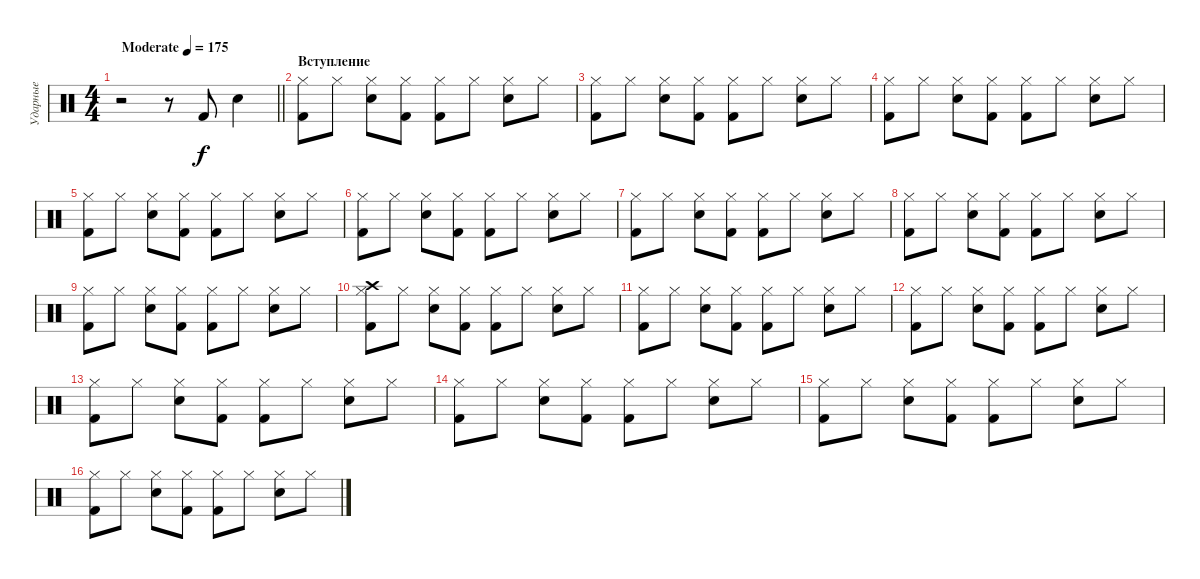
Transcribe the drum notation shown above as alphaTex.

\track ("Ударные" "Ударные") {instrument percussion}
\staff {score}
\articulation defaults
\ts (4 4)
\tempo (175 "Moderate")
\clef neutral
\barLineRight lightlight
\ks c
r.2{dy f} r.8 "Kick (hit) 2".8 "Snare (hit) 2".4 |
\section ("" "Вступление")
("Hi-Hat (closed)" "Kick (hit) 2").8 "Hi-Hat (closed)".8 ("Hi-Hat (closed)" "Snare (hit) 2").8 ("Hi-Hat (closed)" "Kick (hit) 2").8 ("Hi-Hat (closed)" "Kick (hit) 2").8 "Hi-Hat (closed)".8 ("Hi-Hat (closed)" "Snare (hit) 2").8 "Hi-Hat (closed)".8 |
("Hi-Hat (closed)" "Kick (hit) 2").8 "Hi-Hat (closed)".8 ("Hi-Hat (closed)" "Snare (hit) 2").8 ("Hi-Hat (closed)" "Kick (hit) 2").8 ("Hi-Hat (closed)" "Kick (hit) 2").8 "Hi-Hat (closed)".8 ("Hi-Hat (closed)" "Snare (hit) 2").8 "Hi-Hat (closed)".8 |
("Hi-Hat (closed)" "Kick (hit) 2").8 "Hi-Hat (closed)".8 ("Hi-Hat (closed)" "Snare (hit) 2").8 ("Hi-Hat (closed)" "Kick (hit) 2").8 ("Hi-Hat (closed)" "Kick (hit) 2").8 "Hi-Hat (closed)".8 ("Hi-Hat (closed)" "Snare (hit) 2").8 "Hi-Hat (closed)".8 |
("Hi-Hat (closed)" "Kick (hit) 2").8 "Hi-Hat (closed)".8 ("Hi-Hat (closed)" "Snare (hit) 2").8 ("Hi-Hat (closed)" "Kick (hit) 2").8 ("Hi-Hat (closed)" "Kick (hit) 2").8 "Hi-Hat (closed)".8 ("Hi-Hat (closed)" "Snare (hit) 2").8 "Hi-Hat (closed)".8 |
("Hi-Hat (closed)" "Kick (hit) 2").8 "Hi-Hat (closed)".8 ("Hi-Hat (closed)" "Snare (hit) 2").8 ("Hi-Hat (closed)" "Kick (hit) 2").8 ("Hi-Hat (closed)" "Kick (hit) 2").8 "Hi-Hat (closed)".8 ("Hi-Hat (closed)" "Snare (hit) 2").8 "Hi-Hat (closed)".8 |
("Hi-Hat (closed)" "Kick (hit) 2").8 "Hi-Hat (closed)".8 ("Hi-Hat (closed)" "Snare (hit) 2").8 ("Hi-Hat (closed)" "Kick (hit) 2").8 ("Hi-Hat (closed)" "Kick (hit) 2").8 "Hi-Hat (closed)".8 ("Hi-Hat (closed)" "Snare (hit) 2").8 "Hi-Hat (closed)".8 |
("Hi-Hat (closed)" "Kick (hit) 2").8 "Hi-Hat (closed)".8 ("Hi-Hat (closed)" "Snare (hit) 2").8 ("Hi-Hat (closed)" "Kick (hit) 2").8 ("Hi-Hat (closed)" "Kick (hit) 2").8 "Hi-Hat (closed)".8 ("Hi-Hat (closed)" "Snare (hit) 2").8 "Hi-Hat (closed)".8 |
("Hi-Hat (closed)" "Kick (hit) 2").8 "Hi-Hat (closed)".8 ("Hi-Hat (closed)" "Snare (hit) 2").8 ("Hi-Hat (closed)" "Kick (hit) 2").8 ("Hi-Hat (closed)" "Kick (hit) 2").8 "Hi-Hat (closed)".8 ("Hi-Hat (closed)" "Snare (hit) 2").8 "Hi-Hat (closed)".8 |
("Crash high (hit)" "Hi-Hat (closed)" "Kick (hit) 2").8 "Hi-Hat (closed)".8 ("Hi-Hat (closed)" "Snare (hit) 2").8 ("Hi-Hat (closed)" "Kick (hit) 2").8 ("Hi-Hat (closed)" "Kick (hit) 2").8 "Hi-Hat (closed)".8 ("Hi-Hat (closed)" "Snare (hit) 2").8 "Hi-Hat (closed)".8 |
("Hi-Hat (closed)" "Kick (hit) 2").8 "Hi-Hat (closed)".8 ("Hi-Hat (closed)" "Snare (hit) 2").8 ("Hi-Hat (closed)" "Kick (hit) 2").8 ("Hi-Hat (closed)" "Kick (hit) 2").8 "Hi-Hat (closed)".8 ("Hi-Hat (closed)" "Snare (hit) 2").8 "Hi-Hat (closed)".8 |
("Hi-Hat (closed)" "Kick (hit) 2").8 "Hi-Hat (closed)".8 ("Hi-Hat (closed)" "Snare (hit) 2").8 ("Hi-Hat (closed)" "Kick (hit) 2").8 ("Hi-Hat (closed)" "Kick (hit) 2").8 "Hi-Hat (closed)".8 ("Hi-Hat (closed)" "Snare (hit) 2").8 "Hi-Hat (closed)".8 |
("Hi-Hat (closed)" "Kick (hit) 2").8 "Hi-Hat (closed)".8 ("Hi-Hat (closed)" "Snare (hit) 2").8 ("Hi-Hat (closed)" "Kick (hit) 2").8 ("Hi-Hat (closed)" "Kick (hit) 2").8 "Hi-Hat (closed)".8 ("Hi-Hat (closed)" "Snare (hit) 2").8 "Hi-Hat (closed)".8 |
("Hi-Hat (closed)" "Kick (hit) 2").8 "Hi-Hat (closed)".8 ("Hi-Hat (closed)" "Snare (hit) 2").8 ("Hi-Hat (closed)" "Kick (hit) 2").8 ("Hi-Hat (closed)" "Kick (hit) 2").8 "Hi-Hat (closed)".8 ("Hi-Hat (closed)" "Snare (hit) 2").8 "Hi-Hat (closed)".8 |
("Hi-Hat (closed)" "Kick (hit) 2").8 "Hi-Hat (closed)".8 ("Hi-Hat (closed)" "Snare (hit) 2").8 ("Hi-Hat (closed)" "Kick (hit) 2").8 ("Hi-Hat (closed)" "Kick (hit) 2").8 "Hi-Hat (closed)".8 ("Hi-Hat (closed)" "Snare (hit) 2").8 "Hi-Hat (closed)".8 |
("Hi-Hat (closed)" "Kick (hit) 2").8 "Hi-Hat (closed)".8 ("Hi-Hat (closed)" "Snare (hit) 2").8 ("Hi-Hat (closed)" "Kick (hit) 2").8 ("Hi-Hat (closed)" "Kick (hit) 2").8 "Hi-Hat (closed)".8 ("Hi-Hat (closed)" "Snare (hit) 2").8 "Hi-Hat (closed)".8
